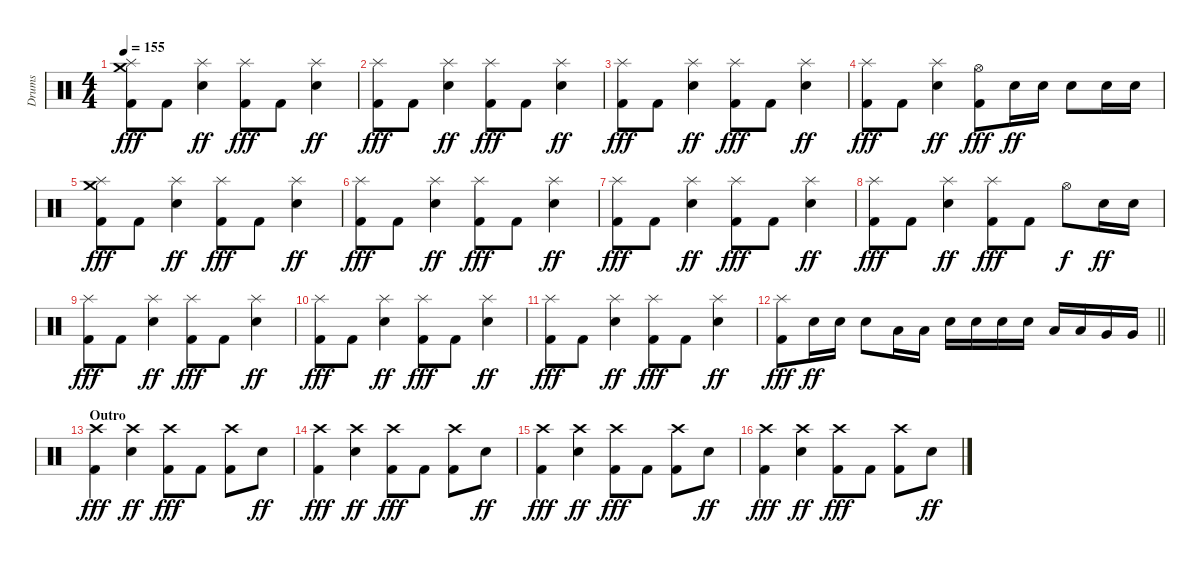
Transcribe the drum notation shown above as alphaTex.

\track ("Drums" "Drums") {instrument percussion}
\staff {score}
\articulation defaults
\ts (4 4)
\tempo 155
\clef neutral
\ks c
("Crash medium (hit)" "Splash (hit)" "Kick (hit) 2").8{dy fff} "Kick (hit) 2".8 ("Splash (hit)" "Snare (hit) 2").4{dy ff} ("Splash (hit)" "Kick (hit) 2").8{dy fff} "Kick (hit) 2".8 ("Splash (hit)" "Snare (hit) 2").4{dy ff} |
("Splash (hit)" "Kick (hit) 2").8{dy fff} "Kick (hit) 2".8 ("Splash (hit)" "Snare (hit) 2").4{dy ff} ("Splash (hit)" "Kick (hit) 2").8{dy fff} "Kick (hit) 2".8 ("Splash (hit)" "Snare (hit) 2").4{dy ff} |
("Splash (hit)" "Kick (hit) 2").8{dy fff} "Kick (hit) 2".8 ("Splash (hit)" "Snare (hit) 2").4{dy ff} ("Splash (hit)" "Kick (hit) 2").8{dy fff} "Kick (hit) 2".8 ("Splash (hit)" "Snare (hit) 2").4{dy ff} |
("Splash (hit)" "Kick (hit) 2").8{dy fff} "Kick (hit) 2".8 ("Splash (hit)" "Snare (hit) 2").4{dy ff} ("Hi-Hat (open)" "Kick (hit) 2").8{dy fff} "Snare (hit) 2".16{dy ff} "Snare (hit) 2".16 "Snare (hit) 2".8 "Snare (hit) 2".16 "Snare (hit) 2".16 |
("Crash medium (hit)" "Splash (hit)" "Kick (hit) 2").8{dy fff} "Kick (hit) 2".8 ("Splash (hit)" "Snare (hit) 2").4{dy ff} ("Splash (hit)" "Kick (hit) 2").8{dy fff} "Kick (hit) 2".8 ("Splash (hit)" "Snare (hit) 2").4{dy ff} |
("Splash (hit)" "Kick (hit) 2").8{dy fff} "Kick (hit) 2".8 ("Splash (hit)" "Snare (hit) 2").4{dy ff} ("Splash (hit)" "Kick (hit) 2").8{dy fff} "Kick (hit) 2".8 ("Splash (hit)" "Snare (hit) 2").4{dy ff} |
("Splash (hit)" "Kick (hit) 2").8{dy fff} "Kick (hit) 2".8 ("Splash (hit)" "Snare (hit) 2").4{dy ff} ("Splash (hit)" "Kick (hit) 2").8{dy fff} "Kick (hit) 2".8 ("Splash (hit)" "Snare (hit) 2").4{dy ff} |
("Splash (hit)" "Kick (hit) 2").8{dy fff} "Kick (hit) 2".8 ("Splash (hit)" "Snare (hit) 2").4{dy ff} ("Splash (hit)" "Kick (hit) 2").8{dy fff} "Kick (hit) 2".8 "Hi-Hat (open)".8{dy f} "Snare (hit) 2".16{dy ff} "Snare (hit) 2".16 |
("Splash (hit)" "Kick (hit) 2").8{dy fff} "Kick (hit) 2".8 ("Splash (hit)" "Snare (hit) 2").4{dy ff} ("Splash (hit)" "Kick (hit) 2").8{dy fff} "Kick (hit) 2".8 ("Splash (hit)" "Snare (hit) 2").4{dy ff} |
("Splash (hit)" "Kick (hit) 2").8{dy fff} "Kick (hit) 2".8 ("Splash (hit)" "Snare (hit) 2").4{dy ff} ("Splash (hit)" "Kick (hit) 2").8{dy fff} "Kick (hit) 2".8 ("Splash (hit)" "Snare (hit) 2").4{dy ff} |
("Splash (hit)" "Kick (hit) 2").8{dy fff} "Kick (hit) 2".8 ("Splash (hit)" "Snare (hit) 2").4{dy ff} ("Splash (hit)" "Kick (hit) 2").8{dy fff} "Kick (hit) 2".8 ("Splash (hit)" "Snare (hit) 2").4{dy ff} |
\barLineRight lightlight
("Splash (hit)" "Kick (hit) 2").8{dy fff} "Snare (hit) 2".16{dy ff} "Snare (hit) 2".16 "Snare (hit) 2".8 "Low Tom (hit)".16 "Low Tom (hit)".16 "Snare (hit) 2".16 "Snare (hit) 2".16 "Snare (hit) 2".16 "Snare (hit) 2".16 "Low Tom (hit)".16 "Low Tom (hit)".16 "Very Low Tom (hit)".16 "Very Low Tom (hit)".16 |
\section ("" "Outro")
("Crash high (hit)" "Kick (hit) 2").4{dy fff} ("Crash high (hit)" "Snare (hit) 2").4{dy ff} ("Crash high (hit)" "Kick (hit) 2").8{dy fff} "Kick (hit) 2".8 ("Crash high (hit)" "Kick (hit) 2").8 "Snare (hit) 2".8{dy ff} |
("Crash high (hit)" "Kick (hit) 2").4{dy fff} ("Crash high (hit)" "Snare (hit) 2").4{dy ff} ("Crash high (hit)" "Kick (hit) 2").8{dy fff} "Kick (hit) 2".8 ("Crash high (hit)" "Kick (hit) 2").8 "Snare (hit) 2".8{dy ff} |
("Crash high (hit)" "Kick (hit) 2").4{dy fff} ("Crash high (hit)" "Snare (hit) 2").4{dy ff} ("Crash high (hit)" "Kick (hit) 2").8{dy fff} "Kick (hit) 2".8 ("Crash high (hit)" "Kick (hit) 2").8 "Snare (hit) 2".8{dy ff} |
("Crash high (hit)" "Kick (hit) 2").4{dy fff} ("Crash high (hit)" "Snare (hit) 2").4{dy ff} ("Crash high (hit)" "Kick (hit) 2").8{dy fff} "Kick (hit) 2".8 ("Crash high (hit)" "Kick (hit) 2").8 "Snare (hit) 2".8{dy ff}
